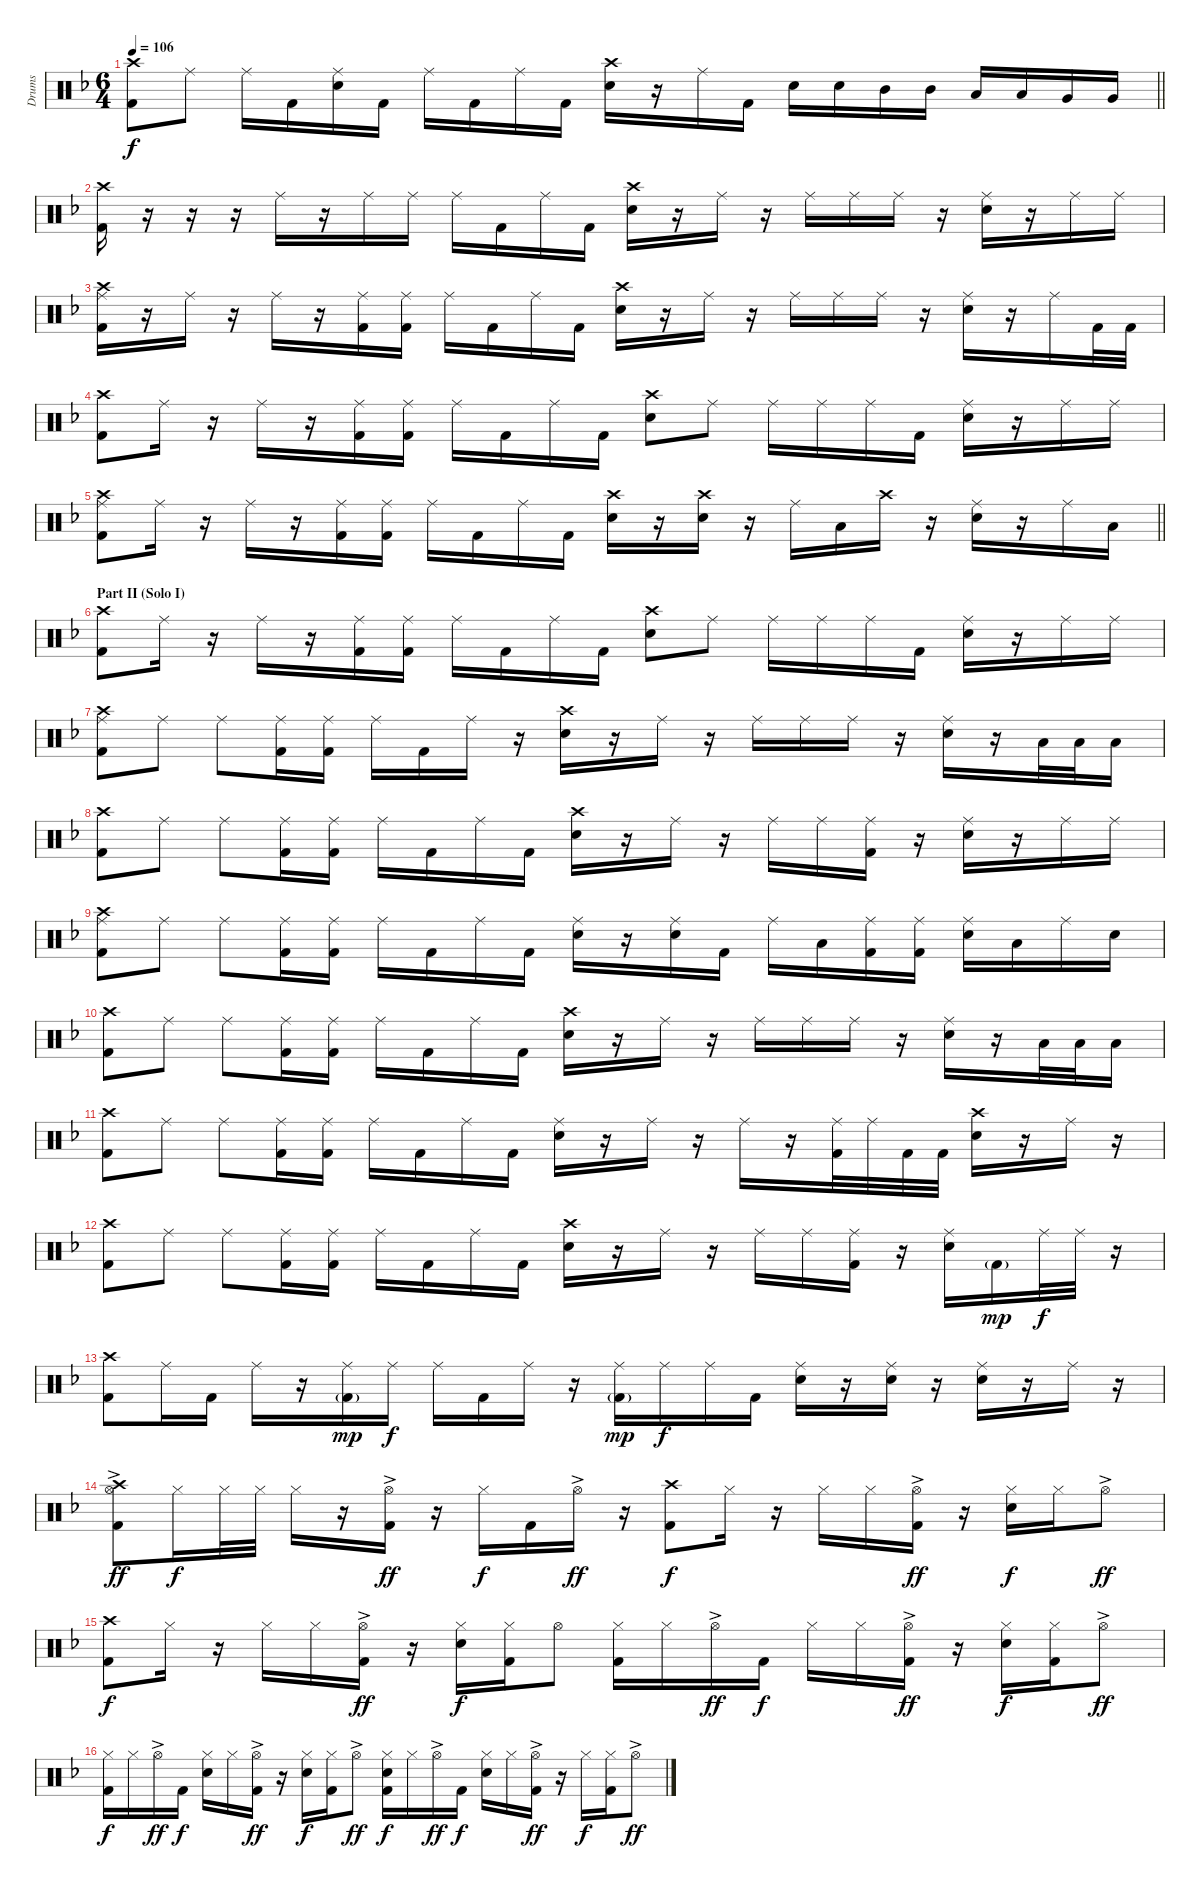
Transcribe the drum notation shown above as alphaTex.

\track ("Drums" "Drums") {instrument percussion}
\staff {score}
\articulation defaults
\ts (6 4)
\tempo 106
\clef neutral
\barLineRight lightlight
\ks dminor
("Crash high (hit)" "Kick (hit) 2").8{dy f} "Ride (middle)".8 "Ride (middle)".16 "Kick (hit) 2".16 ("Ride (middle)" "Snare (hit) 2").16 "Kick (hit) 2".16 "Ride (middle)".16 "Kick (hit) 2".16 "Ride (middle)".16 "Kick (hit) 2".16 ("Crash high (hit)" "Snare (hit) 2").16 r.16 "Ride (middle)".16 "Kick (hit) 2".16 "Snare (hit) 2".16 "Snare (hit) 2".16 "Mid Tom (hit)".16 "Mid Tom (hit)".16 "Low Tom (hit)".16 "Low Tom (hit)".16 "Very Low Tom (hit)".16 "Very Low Tom (hit)".16 |
("Crash high (hit)" "Kick (hit) 2").16 r.16 r.16 r.16 "Ride (middle)".16 r.16 "Ride (middle)".16 "Ride (middle)".16 "Ride (middle)".16 "Kick (hit) 2".16 "Ride (middle)".16 "Kick (hit) 2".16 ("Crash high (hit)" "Snare (hit) 2").16 r.16 "Ride (middle)".16 r.16 "Ride (middle)".16 "Ride (middle)".16 "Ride (middle)".16 r.16 ("Ride (middle)" "Snare (hit) 2").16 r.16 "Ride (middle)".16 "Ride (middle)".16 |
("Crash high (hit)" "Ride (middle)" "Kick (hit) 2").16 r.16 "Ride (middle)".16 r.16 "Ride (middle)".16 r.16 ("Ride (middle)" "Kick (hit) 2").16 ("Ride (middle)" "Kick (hit) 2").16 "Ride (middle)".16 "Kick (hit) 2".16 "Ride (middle)".16 "Kick (hit) 2".16 ("Crash high (hit)" "Snare (hit) 2").16 r.16 "Ride (middle)".16 r.16 "Ride (middle)".16 "Ride (middle)".16 "Ride (middle)".16 r.16 ("Ride (middle)" "Snare (hit) 2").16 r.16 "Ride (middle)".16 "Kick (hit) 2".32 "Kick (hit) 2".32 |
("Crash high (hit)" "Kick (hit) 2").8 "Ride (middle)".16 r.16 "Ride (middle)".16 r.16 ("Ride (middle)" "Kick (hit) 2").16 ("Ride (middle)" "Kick (hit) 2").16 "Ride (middle)".16 "Kick (hit) 2".16 "Ride (middle)".16 "Kick (hit) 2".16 ("Crash high (hit)" "Snare (hit) 2").8 "Ride (middle)".8 "Ride (middle)".16 "Ride (middle)".16 "Ride (middle)".16 "Kick (hit) 2".16 ("Ride (middle)" "Snare (hit) 2").16 r.16 "Ride (middle)".16 "Ride (middle)".16 |
\barLineRight lightlight
("Crash high (hit)" "Ride (middle)" "Kick (hit) 2").8 "Ride (middle)".16 r.16 "Ride (middle)".16 r.16 ("Ride (middle)" "Kick (hit) 2").16 ("Ride (middle)" "Kick (hit) 2").16 "Ride (middle)".16 "Kick (hit) 2".16 "Ride (middle)".16 "Kick (hit) 2".16 ("Crash high (hit)" "Snare (hit) 2").16 r.16 ("Crash high (hit)" "Snare (hit) 2").16 r.16 "Ride (middle)".16 "Low Tom (hit)".16 "Crash high (hit)".16 r.16 ("Ride (middle)" "Snare (hit) 2").16 r.16 "Ride (middle)".16 "Low Tom (hit)".16 |
\section ("" "Part II (Solo I)")
("Crash high (hit)" "Kick (hit) 2").8 "Ride (middle)".16 r.16 "Ride (middle)".16 r.16 ("Ride (middle)" "Kick (hit) 2").16 ("Ride (middle)" "Kick (hit) 2").16 "Ride (middle)".16 "Kick (hit) 2".16 "Ride (middle)".16 "Kick (hit) 2".16 ("Crash high (hit)" "Snare (hit) 2").8 "Ride (middle)".8 "Ride (middle)".16 "Ride (middle)".16 "Ride (middle)".16 "Kick (hit) 2".16 ("Ride (middle)" "Snare (hit) 2").16 r.16 "Ride (middle)".16 "Ride (middle)".16 |
("Crash high (hit)" "Ride (middle)" "Kick (hit) 2").8 "Ride (middle)".8 "Ride (middle)".8 ("Ride (middle)" "Kick (hit) 2").16 ("Ride (middle)" "Kick (hit) 2").16 "Ride (middle)".16 "Kick (hit) 2".16 "Ride (middle)".16 r.16 ("Crash high (hit)" "Snare (hit) 2").16 r.16 "Ride (middle)".16 r.16 "Ride (middle)".16 "Ride (middle)".16 "Ride (middle)".16 r.16 ("Ride (middle)" "Snare (hit) 2").16 r.16 "Low Tom (hit)".32 "Low Tom (hit)".32 "Low Tom (hit)".16 |
("Crash high (hit)" "Kick (hit) 2").8 "Ride (middle)".8 "Ride (middle)".8 ("Ride (middle)" "Kick (hit) 2").16 ("Ride (middle)" "Kick (hit) 2").16 "Ride (middle)".16 "Kick (hit) 2".16 "Ride (middle)".16 "Kick (hit) 2".16 ("Crash high (hit)" "Snare (hit) 2").16 r.16 "Ride (middle)".16 r.16 "Ride (middle)".16 "Ride (middle)".16 ("Ride (middle)" "Kick (hit) 2").16 r.16 ("Ride (middle)" "Snare (hit) 2").16 r.16 "Ride (middle)".16 "Ride (middle)".16 |
("Crash high (hit)" "Ride (middle)" "Kick (hit) 2").8 "Ride (middle)".8 "Ride (middle)".8 ("Ride (middle)" "Kick (hit) 2").16 ("Ride (middle)" "Kick (hit) 2").16 "Ride (middle)".16 "Kick (hit) 2".16 "Ride (middle)".16 "Kick (hit) 2".16 ("Ride (middle)" "Snare (hit) 2").16 r.16 ("Ride (middle)" "Snare (hit) 2").16 "Kick (hit) 2".16 "Ride (middle)".16 "Low Tom (hit)".16 ("Ride (middle)" "Kick (hit) 2").16 ("Ride (middle)" "Kick (hit) 2").16 ("Ride (middle)" "Snare (hit) 2").16 "Low Tom (hit)".16 "Ride (middle)".16 "Snare (hit) 2".16 |
("Crash high (hit)" "Kick (hit) 2").8 "Ride (middle)".8 "Ride (middle)".8 ("Ride (middle)" "Kick (hit) 2").16 ("Ride (middle)" "Kick (hit) 2").16 "Ride (middle)".16 "Kick (hit) 2".16 "Ride (middle)".16 "Kick (hit) 2".16 ("Crash high (hit)" "Snare (hit) 2").16 r.16 "Ride (middle)".16 r.16 "Ride (middle)".16 "Ride (middle)".16 "Ride (middle)".16 r.16 ("Ride (middle)" "Snare (hit) 2").16 r.16 "Low Tom (hit)".32 "Low Tom (hit)".32 "Low Tom (hit)".16 |
("Crash high (hit)" "Kick (hit) 2").8 "Ride (middle)".8 "Ride (middle)".8 ("Ride (middle)" "Kick (hit) 2").16 ("Ride (middle)" "Kick (hit) 2").16 "Ride (middle)".16 "Kick (hit) 2".16 "Ride (middle)".16 "Kick (hit) 2".16 ("Ride (middle)" "Snare (hit) 2").16 r.16 "Ride (middle)".16 r.16 "Ride (middle)".16 r.16 ("Ride (middle)" "Kick (hit) 2").32 "Ride (middle)".32 "Kick (hit) 2".32 "Kick (hit) 2".32 ("Crash high (hit)" "Snare (hit) 2").16 r.16 "Ride (middle)".16 r.16 |
("Crash high (hit)" "Kick (hit) 2").8 "Ride (middle)".8 "Ride (middle)".8 ("Ride (middle)" "Kick (hit) 2").16 ("Ride (middle)" "Kick (hit) 2").16 "Ride (middle)".16 "Kick (hit) 2".16 "Ride (middle)".16 "Kick (hit) 2".16 ("Crash high (hit)" "Snare (hit) 2").16 r.16 "Ride (middle)".16 r.16 "Ride (middle)".16 "Ride (middle)".16 ("Ride (middle)" "Kick (hit) 2").16 r.16 ("Ride (middle)" "Snare (hit) 2").16 "Kick (hit) 2"{g}.16{dy mp} "Ride (middle)".32{dy f} "Ride (middle)".32 r.16 |
("Crash high (hit)" "Kick (hit) 2").8 "Ride (middle)".16 "Kick (hit) 2".16 "Ride (middle)".16 r.16 ("Ride (middle)" "Kick (hit) 2"{g}).16{dy mp} "Ride (middle)".16{dy f} "Ride (middle)".16 "Kick (hit) 2".16 "Ride (middle)".16 r.16 ("Ride (middle)" "Kick (hit) 2"{g}).16{dy mp} "Ride (middle)".16{dy f} "Ride (middle)".16 "Kick (hit) 2".16 ("Ride (middle)" "Snare (hit) 2").16 r.16 ("Ride (middle)" "Snare (hit) 2").16 r.16 ("Ride (middle)" "Snare (hit) 2").16 r.16 "Ride (middle)".16 r.16 |
("Crash high (hit)" "Hi-Hat (open)"{ac} "Kick (hit) 2").8{dy ff} "Hi-Hat (closed)".16{dy f} "Hi-Hat (closed)".32 "Hi-Hat (closed)".32 "Hi-Hat (closed)".16 r.16 ("Hi-Hat (open)"{ac} "Kick (hit) 2").16{dy ff} r.16 "Hi-Hat (closed)".16{dy f} "Kick (hit) 2".16 "Hi-Hat (open)"{ac}.16{dy ff} r.16 ("Crash high (hit)" "Kick (hit) 2").8{dy f} "Hi-Hat (closed)".16 r.16 "Hi-Hat (closed)".16 "Hi-Hat (closed)".16 ("Hi-Hat (open)"{ac} "Kick (hit) 2").16{dy ff} r.16 ("Hi-Hat (closed)" "Snare (hit) 2").16{dy f} "Hi-Hat (closed)".16 "Hi-Hat (open)"{ac}.8{dy ff} |
("Crash high (hit)" "Kick (hit) 2").8{dy f} "Hi-Hat (closed)".16 r.16 "Hi-Hat (closed)".16 "Hi-Hat (closed)".16 ("Hi-Hat (open)"{ac} "Kick (hit) 2").16{dy ff} r.16 ("Hi-Hat (closed)" "Snare (hit) 2").16{dy f} ("Hi-Hat (closed)" "Kick (hit) 2").16 "Hi-Hat (open)".8 ("Hi-Hat (closed)" "Kick (hit) 2").16 "Hi-Hat (closed)".16 "Hi-Hat (open)"{ac}.16{dy ff} "Kick (hit) 2".16{dy f} "Hi-Hat (closed)".16 "Hi-Hat (closed)".16 ("Hi-Hat (open)"{ac} "Kick (hit) 2").16{dy ff} r.16 ("Hi-Hat (closed)" "Snare (hit) 2").16{dy f} ("Hi-Hat (closed)" "Kick (hit) 2").16 "Hi-Hat (open)"{ac}.8{dy ff} |
("Hi-Hat (closed)" "Kick (hit) 2").16{dy f} "Hi-Hat (closed)".16 "Hi-Hat (open)"{ac}.16{dy ff} "Kick (hit) 2".16{dy f} ("Hi-Hat (closed)" "Snare (hit) 2").16 "Hi-Hat (closed)".16 ("Hi-Hat (open)"{ac} "Kick (hit) 2").16{dy ff} r.16 ("Hi-Hat (closed)" "Snare (hit) 2").16{dy f} ("Hi-Hat (closed)" "Kick (hit) 2").16 "Hi-Hat (open)"{ac}.8{dy ff} ("Hi-Hat (closed)" "Snare (hit) 2" "Kick (hit) 2").16{dy f} "Hi-Hat (closed)".16 "Hi-Hat (open)"{ac}.16{dy ff} "Kick (hit) 2".16{dy f} ("Hi-Hat (closed)" "Snare (hit) 2").16 "Hi-Hat (closed)".16 ("Hi-Hat (open)"{ac} "Kick (hit) 2").16{dy ff} r.16 "Hi-Hat (closed)".16{dy f} ("Hi-Hat (closed)" "Kick (hit) 2").16 "Hi-Hat (open)"{ac}.8{dy ff}
